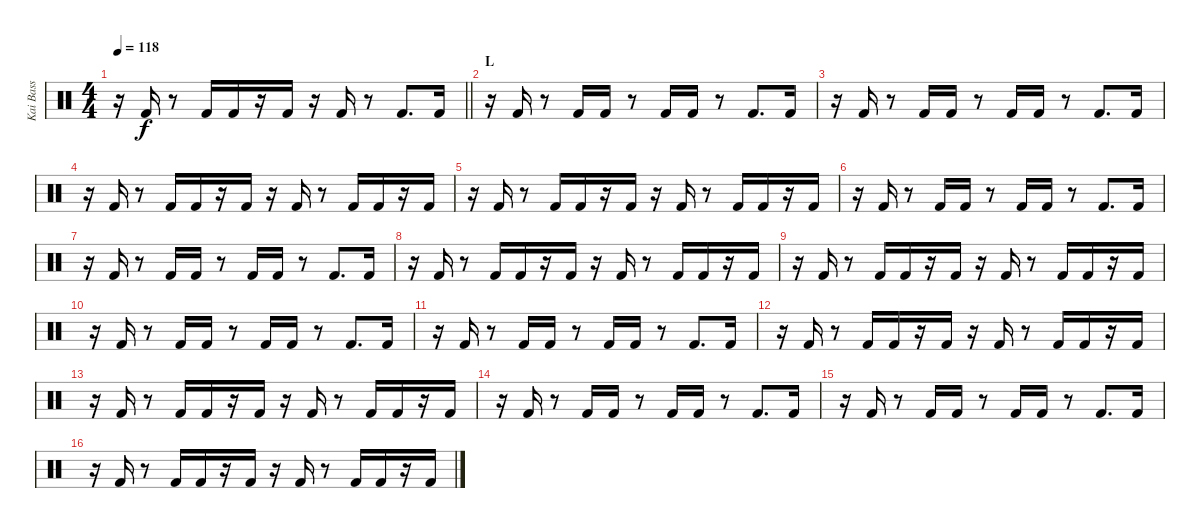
\track ("Kai Bass" "Kai Bass") {instrument percussion}
\staff {score}
\articulation defaults
\ts (4 4)
\tempo 118
\clef neutral
\barLineRight lightlight
\ks c
r.16{dy f} "Kick (hit) 2".16 r.8 "Kick (hit) 2".16 "Kick (hit) 2".16 r.16 "Kick (hit) 2".16 r.16 "Kick (hit) 2".16 r.8 "Kick (hit) 2".8{d} "Kick (hit) 2".16 |
\section ("" "L")
r.16 "Kick (hit) 2".16 r.8 "Kick (hit) 2".16 "Kick (hit) 2".16 r.8 "Kick (hit) 2".16 "Kick (hit) 2".16 r.8 "Kick (hit) 2".8{d} "Kick (hit) 2".16 |
r.16 "Kick (hit) 2".16 r.8 "Kick (hit) 2".16 "Kick (hit) 2".16 r.8 "Kick (hit) 2".16 "Kick (hit) 2".16 r.8 "Kick (hit) 2".8{d} "Kick (hit) 2".16 |
r.16 "Kick (hit) 2".16 r.8 "Kick (hit) 2".16 "Kick (hit) 2".16 r.16 "Kick (hit) 2".16 r.16 "Kick (hit) 2".16 r.8 "Kick (hit) 2".16 "Kick (hit) 2".16 r.16 "Kick (hit) 2".16 |
r.16 "Kick (hit) 2".16 r.8 "Kick (hit) 2".16 "Kick (hit) 2".16 r.16 "Kick (hit) 2".16 r.16 "Kick (hit) 2".16 r.8 "Kick (hit) 2".16 "Kick (hit) 2".16 r.16 "Kick (hit) 2".16 |
r.16 "Kick (hit) 2".16 r.8 "Kick (hit) 2".16 "Kick (hit) 2".16 r.8 "Kick (hit) 2".16 "Kick (hit) 2".16 r.8 "Kick (hit) 2".8{d} "Kick (hit) 2".16 |
r.16 "Kick (hit) 2".16 r.8 "Kick (hit) 2".16 "Kick (hit) 2".16 r.8 "Kick (hit) 2".16 "Kick (hit) 2".16 r.8 "Kick (hit) 2".8{d} "Kick (hit) 2".16 |
r.16 "Kick (hit) 2".16 r.8 "Kick (hit) 2".16 "Kick (hit) 2".16 r.16 "Kick (hit) 2".16 r.16 "Kick (hit) 2".16 r.8 "Kick (hit) 2".16 "Kick (hit) 2".16 r.16 "Kick (hit) 2".16 |
r.16 "Kick (hit) 2".16 r.8 "Kick (hit) 2".16 "Kick (hit) 2".16 r.16 "Kick (hit) 2".16 r.16 "Kick (hit) 2".16 r.8 "Kick (hit) 2".16 "Kick (hit) 2".16 r.16 "Kick (hit) 2".16 |
r.16 "Kick (hit) 2".16 r.8 "Kick (hit) 2".16 "Kick (hit) 2".16 r.8 "Kick (hit) 2".16 "Kick (hit) 2".16 r.8 "Kick (hit) 2".8{d} "Kick (hit) 2".16 |
r.16 "Kick (hit) 2".16 r.8 "Kick (hit) 2".16 "Kick (hit) 2".16 r.8 "Kick (hit) 2".16 "Kick (hit) 2".16 r.8 "Kick (hit) 2".8{d} "Kick (hit) 2".16 |
r.16 "Kick (hit) 2".16 r.8 "Kick (hit) 2".16 "Kick (hit) 2".16 r.16 "Kick (hit) 2".16 r.16 "Kick (hit) 2".16 r.8 "Kick (hit) 2".16 "Kick (hit) 2".16 r.16 "Kick (hit) 2".16 |
r.16 "Kick (hit) 2".16 r.8 "Kick (hit) 2".16 "Kick (hit) 2".16 r.16 "Kick (hit) 2".16 r.16 "Kick (hit) 2".16 r.8 "Kick (hit) 2".16 "Kick (hit) 2".16 r.16 "Kick (hit) 2".16 |
r.16 "Kick (hit) 2".16 r.8 "Kick (hit) 2".16 "Kick (hit) 2".16 r.8 "Kick (hit) 2".16 "Kick (hit) 2".16 r.8 "Kick (hit) 2".8{d} "Kick (hit) 2".16 |
r.16 "Kick (hit) 2".16 r.8 "Kick (hit) 2".16 "Kick (hit) 2".16 r.8 "Kick (hit) 2".16 "Kick (hit) 2".16 r.8 "Kick (hit) 2".8{d} "Kick (hit) 2".16 |
r.16 "Kick (hit) 2".16 r.8 "Kick (hit) 2".16 "Kick (hit) 2".16 r.16 "Kick (hit) 2".16 r.16 "Kick (hit) 2".16 r.8 "Kick (hit) 2".16 "Kick (hit) 2".16 r.16 "Kick (hit) 2".16
